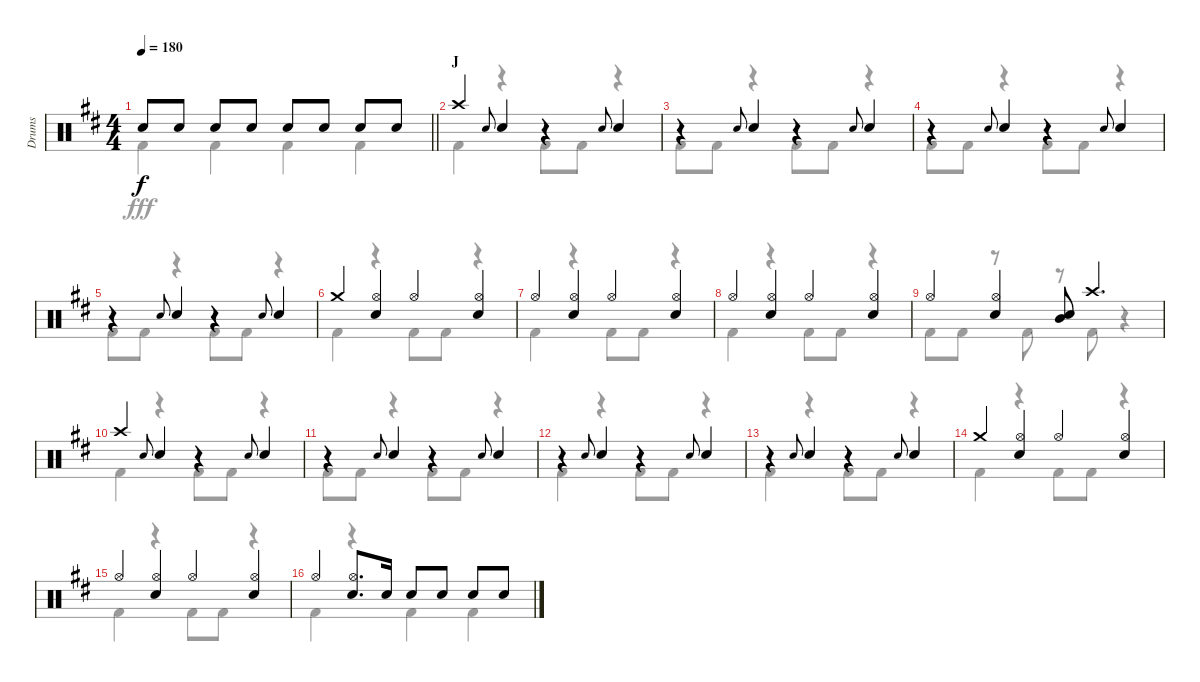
\track ("Drums" "Drums") {instrument percussion}
\staff {score}
\articulation defaults
\voice
\ts (4 4)
\tempo 180
\clef neutral
\barLineRight lightlight
\ks d "Snare (hit) 2".8{dy f} "Snare (hit) 2".8 "Snare (hit) 2".8 "Snare (hit) 2".8 "Snare (hit) 2".8 "Snare (hit) 2".8 "Snare (hit) 2".8 "Snare (hit) 2".8
|
\section ("" "J")
"Crash high (hit)".4 "Snare (hit) 2".8{gr onbeat} "Snare (hit) 2".4 r.4 "Snare (hit) 2".8{gr onbeat} "Snare (hit) 2".4 |
r.4 "Snare (hit) 2".8{gr onbeat} "Snare (hit) 2".4 r.4 "Snare (hit) 2".8{gr onbeat} "Snare (hit) 2".4 |
r.4 "Snare (hit) 2".8{gr onbeat} "Snare (hit) 2".4 r.4 "Snare (hit) 2".8{gr onbeat} "Snare (hit) 2".4 |
r.4 "Snare (hit) 2".8{gr onbeat} "Snare (hit) 2".4 r.4 "Snare (hit) 2".8{gr onbeat} "Snare (hit) 2".4 |
"Crash medium (hit)".4 ("Hi-Hat (open)" "Snare (hit) 2").4 "Hi-Hat (open)".4 ("Hi-Hat (open)" "Snare (hit) 2").4 |
"Hi-Hat (open)".4 ("Hi-Hat (open)" "Snare (hit) 2").4 "Hi-Hat (open)".4 ("Hi-Hat (open)" "Snare (hit) 2").4 |
"Hi-Hat (open)".4 ("Hi-Hat (open)" "Snare (hit) 2").4 "Hi-Hat (open)".4 ("Hi-Hat (open)" "Snare (hit) 2").4 |
"Hi-Hat (open)".4 ("Hi-Hat (open)" "Snare (hit) 2").4 ("Mid Tom (hit)" "Snare (hit) 2").8 "Crash high (hit)".4{d} |
"Crash high (hit)".4 "Snare (hit) 2".8{gr onbeat} "Snare (hit) 2".4 r.4 "Snare (hit) 2".8{gr onbeat} "Snare (hit) 2".4 |
r.4 "Snare (hit) 2".8{gr onbeat} "Snare (hit) 2".4 r.4 "Snare (hit) 2".8{gr onbeat} "Snare (hit) 2".4 |
r.4 "Snare (hit) 2".8{gr onbeat} "Snare (hit) 2".4 r.4 "Snare (hit) 2".8{gr onbeat} "Snare (hit) 2".4 |
r.4 "Snare (hit) 2".8{gr onbeat} "Snare (hit) 2".4 r.4 "Snare (hit) 2".8{gr onbeat} "Snare (hit) 2".4 |
"Crash medium (hit)".4 ("Hi-Hat (open)" "Snare (hit) 2").4 "Hi-Hat (open)".4 ("Hi-Hat (open)" "Snare (hit) 2").4 |
"Hi-Hat (open)".4 ("Hi-Hat (open)" "Snare (hit) 2").4 "Hi-Hat (open)".4 ("Hi-Hat (open)" "Snare (hit) 2").4 |
"Hi-Hat (open)".4 ("Hi-Hat (open)" "Snare (hit) 2").8{d} "Snare (hit) 2".16 "Snare (hit) 2".8 "Snare (hit) 2".8 "Snare (hit) 2".8 "Snare (hit) 2".8
\voice
\clef neutral
\ottava regular
\simile none
\barLineRight lightlight
\ks d "Kick (hit) 2".4{dy fff} "Kick (hit) 2".4 "Kick (hit) 2".4 "Kick (hit) 2".4
|
"Kick (hit) 2".4 r.4 "Kick (hit) 2".8 "Kick (hit) 2".8 r.4 |
"Kick (hit) 2".8 "Kick (hit) 2".8 r.4 "Kick (hit) 2".8 "Kick (hit) 2".8 r.4 |
"Kick (hit) 2".8 "Kick (hit) 2".8 r.4 "Kick (hit) 2".8 "Kick (hit) 2".8 r.4 |
"Kick (hit) 2".8 "Kick (hit) 2".8 r.4 "Kick (hit) 2".8 "Kick (hit) 2".8 r.4 |
"Kick (hit) 2".4 r.4 "Kick (hit) 2".8 "Kick (hit) 2".8 r.4 |
"Kick (hit) 2".4 r.4 "Kick (hit) 2".8 "Kick (hit) 2".8 r.4 |
"Kick (hit) 2".4 r.4 "Kick (hit) 2".8 "Kick (hit) 2".8 r.4 |
"Kick (hit) 2".8 "Kick (hit) 2".8 r.8 "Kick (hit) 2".8 r.8 "Kick (hit) 2".8 r.4 |
"Kick (hit) 2".4 r.4 "Kick (hit) 2".8 "Kick (hit) 2".8 r.4 |
"Kick (hit) 2".8 "Kick (hit) 2".8 r.4 "Kick (hit) 2".8 "Kick (hit) 2".8 r.4 |
"Kick (hit) 2".4 r.4 "Kick (hit) 2".8 "Kick (hit) 2".8 r.4 |
"Kick (hit) 2".4 r.4 "Kick (hit) 2".8 "Kick (hit) 2".8 r.4 |
"Kick (hit) 2".4 r.4 "Kick (hit) 2".8 "Kick (hit) 2".8 r.4 |
"Kick (hit) 2".4 r.4 "Kick (hit) 2".8 "Kick (hit) 2".8 r.4 |
"Kick (hit) 2".4 r.4 "Kick (hit) 2".4 "Kick (hit) 2".4
